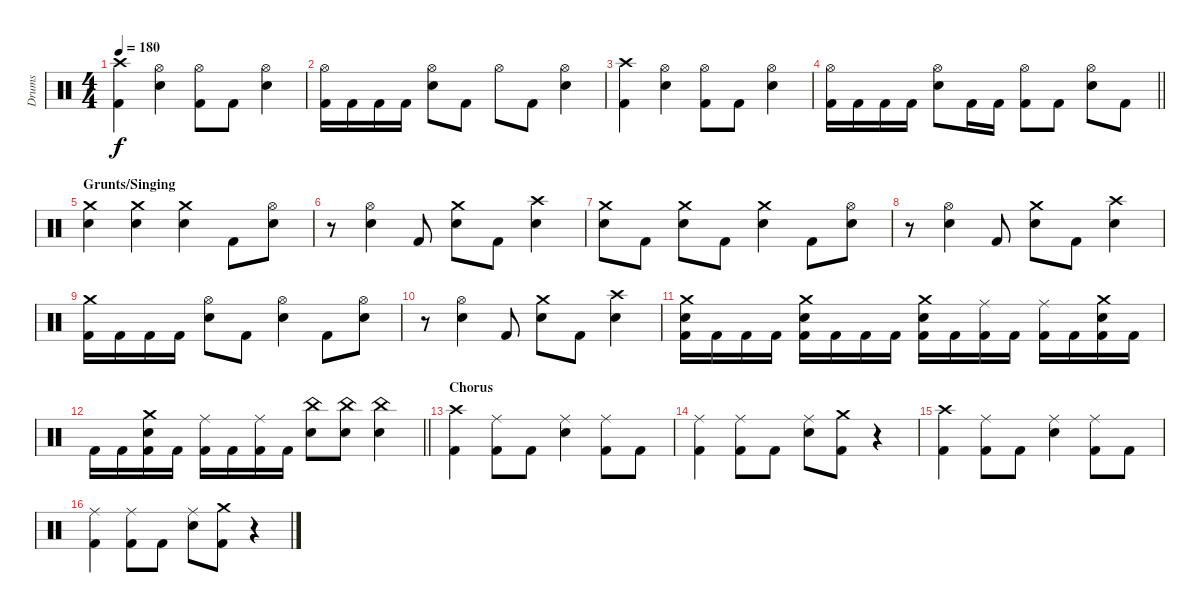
\track ("Drums" "Drums") {instrument percussion}
\staff {score}
\articulation defaults
\ts (4 4)
\tempo 180
\clef neutral
\ks c
("Crash high (hit)" "Kick (hit) 2").4{dy f} ("Hi-Hat (open)" "Electric Snare (hit)").4 ("Hi-Hat (open)" "Kick (hit) 2").8 "Kick (hit) 2".8 ("Hi-Hat (open)" "Electric Snare (hit)").4 |
("Hi-Hat (open)" "Kick (hit) 2").16 "Kick (hit) 2".16 "Kick (hit) 2".16 "Kick (hit) 2".16 ("Hi-Hat (open)" "Electric Snare (hit)").8 "Kick (hit) 2".8 "Hi-Hat (open)".8 "Kick (hit) 2".8 ("Hi-Hat (open)" "Electric Snare (hit)").4 |
("Crash high (hit)" "Kick (hit) 2").4 ("Hi-Hat (open)" "Electric Snare (hit)").4 ("Hi-Hat (open)" "Kick (hit) 2").8 "Kick (hit) 2".8 ("Hi-Hat (open)" "Electric Snare (hit)").4 |
\barLineRight lightlight
("Hi-Hat (open)" "Kick (hit) 2").16 "Kick (hit) 2".16 "Kick (hit) 2".16 "Kick (hit) 2".16 ("Hi-Hat (open)" "Electric Snare (hit)").8 "Kick (hit) 2".16 "Kick (hit) 2".16 ("Hi-Hat (open)" "Kick (hit) 2").8 "Kick (hit) 2".8 ("Hi-Hat (open)" "Electric Snare (hit)").8 "Kick (hit) 2".8 |
\section ("" "Grunts/Singing")
("Crash medium (hit)" "Electric Snare (hit)").4 ("Crash medium (hit)" "Electric Snare (hit)").4 ("Crash medium (hit)" "Electric Snare (hit)").4 "Kick (hit) 2".8 ("Hi-Hat (open)" "Electric Snare (hit)").8 |
r.8 ("Hi-Hat (open)" "Electric Snare (hit)").4 "Kick (hit) 2".8 ("Crash medium (hit)" "Electric Snare (hit)").8 "Kick (hit) 2".8 ("Crash high (hit)" "Electric Snare (hit)").4 |
("Crash medium (hit)" "Electric Snare (hit)").8 "Kick (hit) 2".8 ("Crash medium (hit)" "Electric Snare (hit)").8 "Kick (hit) 2".8 ("Crash medium (hit)" "Electric Snare (hit)").4 "Kick (hit) 2".8 ("Hi-Hat (open)" "Electric Snare (hit)").8 |
r.8 ("Hi-Hat (open)" "Electric Snare (hit)").4 "Kick (hit) 2".8 ("Crash medium (hit)" "Electric Snare (hit)").8 "Kick (hit) 2".8 ("Crash high (hit)" "Electric Snare (hit)").4 |
("Crash medium (hit)" "Kick (hit) 2").16 "Kick (hit) 2".16 "Kick (hit) 2".16 "Kick (hit) 2".16 ("Hi-Hat (open)" "Electric Snare (hit)").8 "Kick (hit) 2".8 ("Hi-Hat (open)" "Electric Snare (hit)").4 "Kick (hit) 2".8 ("Hi-Hat (open)" "Electric Snare (hit)").8 |
r.8 ("Hi-Hat (open)" "Electric Snare (hit)").4 "Kick (hit) 2".8 ("Crash medium (hit)" "Electric Snare (hit)").8 "Kick (hit) 2".8 ("Crash high (hit)" "Electric Snare (hit)").4 |
("Crash medium (hit)" "Electric Snare (hit)" "Kick (hit) 2").16 "Kick (hit) 2".16 "Kick (hit) 2".16 "Kick (hit) 2".16 ("Crash medium (hit)" "Electric Snare (hit)" "Kick (hit) 2").16 "Kick (hit) 2".16 "Kick (hit) 2".16 "Kick (hit) 2".16 ("Crash medium (hit)" "Electric Snare (hit)" "Kick (hit) 2").16 "Kick (hit) 2".16 ("Ride (middle)" "Kick (hit) 2").16 "Kick (hit) 2".16 ("Ride (middle)" "Kick (hit) 2").16 "Kick (hit) 2".16 ("Crash medium (hit)" "Electric Snare (hit)" "Kick (hit) 2").16 "Kick (hit) 2".16 |
\barLineRight lightlight "Kick (hit) 2".16 "Kick (hit) 2".16
("Crash medium (hit)" "Electric Snare (hit)" "Kick (hit) 2").16 "Kick (hit) 2".16 ("Ride (middle)" "Kick (hit) 2").16 "Kick (hit) 2".16 ("Ride (middle)" "Kick (hit) 2").16 "Kick (hit) 2".16 ("China (hit)" "Electric Snare (hit)").8 ("China (hit)" "Electric Snare (hit)").8 ("China (hit)" "Electric Snare (hit)").4 |
\section ("" "Chorus")
("Crash high (hit)" "Kick (hit) 2").4 ("Ride (middle)" "Kick (hit) 2").8 "Kick (hit) 2".8 ("Ride (middle)" "Electric Snare (hit)").4 ("Ride (middle)" "Kick (hit) 2").8 "Kick (hit) 2".8 |
("Ride (middle)" "Kick (hit) 2").4 ("Ride (middle)" "Kick (hit) 2").8 "Kick (hit) 2".8 ("Ride (middle)" "Electric Snare (hit)").8 ("Crash medium (hit)" "Kick (hit) 2").8 r.4 |
("Crash high (hit)" "Kick (hit) 2").4 ("Ride (middle)" "Kick (hit) 2").8 "Kick (hit) 2".8 ("Ride (middle)" "Electric Snare (hit)").4 ("Ride (middle)" "Kick (hit) 2").8 "Kick (hit) 2".8 |
("Ride (middle)" "Kick (hit) 2").4 ("Ride (middle)" "Kick (hit) 2").8 "Kick (hit) 2".8 ("Ride (middle)" "Electric Snare (hit)").8 ("Crash medium (hit)" "Kick (hit) 2").8 r.4
